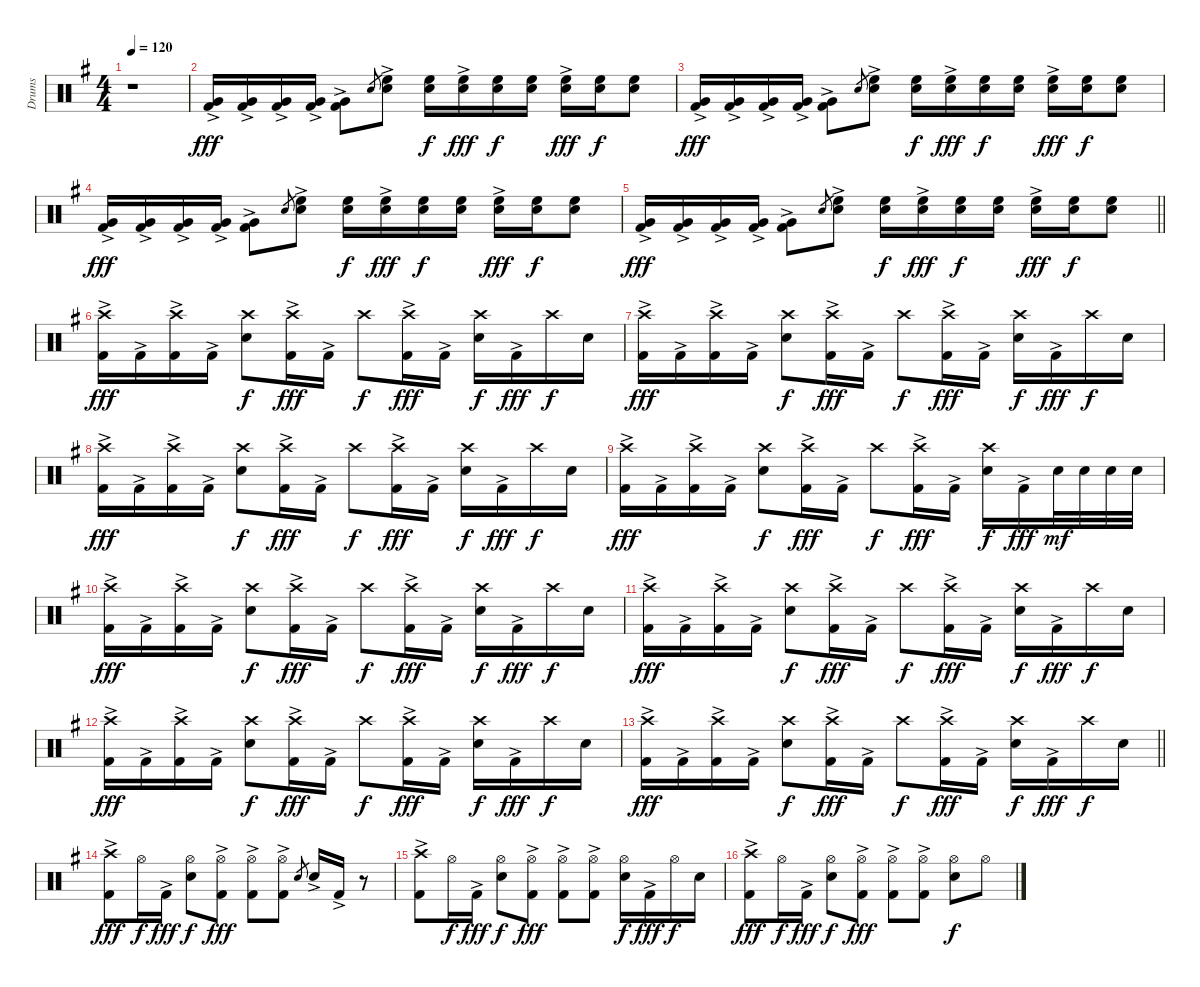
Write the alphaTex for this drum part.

\track ("Drums" "Drums") {instrument percussion}
\staff {score}
\articulation defaults
\ts (4 4)
\tempo 120
\clef neutral
\ks eminor
r.1{dy fff} |
("Very Low Tom (hit)"{ac} "Kick (hit) 2").16 ("Very Low Tom (hit)"{ac} "Kick (hit) 2").16 ("Very Low Tom (hit)"{ac} "Kick (hit) 2").16 ("Very Low Tom (hit)"{ac} "Kick (hit) 2").16 ("Very Low Tom (hit)"{ac} "Kick (hit) 2").8 "Snare (hit) 2".8{gr} ("High Floor Tom (hit)" "Snare (hit) 2"{ac}).8 ("High Floor Tom (hit)" "Snare (hit) 2").16{dy f} ("High Floor Tom (hit)" "Snare (hit) 2"{ac}).16{dy fff} ("High Floor Tom (hit)" "Snare (hit) 2").16{dy f} ("High Floor Tom (hit)" "Snare (hit) 2").16 ("High Floor Tom (hit)" "Snare (hit) 2"{ac}).16{dy fff} ("High Floor Tom (hit)" "Snare (hit) 2").16{dy f} ("High Floor Tom (hit)" "Snare (hit) 2").8 |
("Very Low Tom (hit)"{ac} "Kick (hit) 2").16{dy fff} ("Very Low Tom (hit)"{ac} "Kick (hit) 2").16 ("Very Low Tom (hit)"{ac} "Kick (hit) 2").16 ("Very Low Tom (hit)"{ac} "Kick (hit) 2").16 ("Very Low Tom (hit)"{ac} "Kick (hit) 2").8 "Snare (hit) 2".8{gr} ("High Floor Tom (hit)" "Snare (hit) 2"{ac}).8 ("High Floor Tom (hit)" "Snare (hit) 2").16{dy f} ("High Floor Tom (hit)" "Snare (hit) 2"{ac}).16{dy fff} ("High Floor Tom (hit)" "Snare (hit) 2").16{dy f} ("High Floor Tom (hit)" "Snare (hit) 2").16 ("High Floor Tom (hit)" "Snare (hit) 2"{ac}).16{dy fff} ("High Floor Tom (hit)" "Snare (hit) 2").16{dy f} ("High Floor Tom (hit)" "Snare (hit) 2").8 |
("Very Low Tom (hit)"{ac} "Kick (hit) 2").16{dy fff} ("Very Low Tom (hit)"{ac} "Kick (hit) 2").16 ("Very Low Tom (hit)"{ac} "Kick (hit) 2").16 ("Very Low Tom (hit)"{ac} "Kick (hit) 2").16 ("Very Low Tom (hit)"{ac} "Kick (hit) 2").8 "Snare (hit) 2".8{gr} ("High Floor Tom (hit)" "Snare (hit) 2"{ac}).8 ("High Floor Tom (hit)" "Snare (hit) 2").16{dy f} ("High Floor Tom (hit)" "Snare (hit) 2"{ac}).16{dy fff} ("High Floor Tom (hit)" "Snare (hit) 2").16{dy f} ("High Floor Tom (hit)" "Snare (hit) 2").16 ("High Floor Tom (hit)" "Snare (hit) 2"{ac}).16{dy fff} ("High Floor Tom (hit)" "Snare (hit) 2").16{dy f} ("High Floor Tom (hit)" "Snare (hit) 2").8 |
\barLineRight lightlight
("Very Low Tom (hit)"{ac} "Kick (hit) 2").16{dy fff} ("Very Low Tom (hit)"{ac} "Kick (hit) 2").16 ("Very Low Tom (hit)"{ac} "Kick (hit) 2").16 ("Very Low Tom (hit)"{ac} "Kick (hit) 2").16 ("Very Low Tom (hit)"{ac} "Kick (hit) 2").8 "Snare (hit) 2".8{gr} ("High Floor Tom (hit)" "Snare (hit) 2"{ac}).8 ("High Floor Tom (hit)" "Snare (hit) 2").16{dy f} ("High Floor Tom (hit)" "Snare (hit) 2"{ac}).16{dy fff} ("High Floor Tom (hit)" "Snare (hit) 2").16{dy f} ("High Floor Tom (hit)" "Snare (hit) 2").16 ("High Floor Tom (hit)" "Snare (hit) 2"{ac}).16{dy fff} ("High Floor Tom (hit)" "Snare (hit) 2").16{dy f} ("High Floor Tom (hit)" "Snare (hit) 2").8 |
("Crash high (hit)" "Kick (hit) 2"{ac}).16{dy fff} "Kick (hit) 2"{ac}.16 ("Crash high (hit)" "Kick (hit) 2"{ac}).16 "Kick (hit) 2"{ac}.16 ("Crash high (hit)" "Snare (hit) 2").8{dy f} ("Crash high (hit)" "Kick (hit) 2"{ac}).16{dy fff} "Kick (hit) 2"{ac}.16 "Crash high (hit)".8{dy f} ("Crash high (hit)" "Kick (hit) 2"{ac}).16{dy fff} "Kick (hit) 2"{ac}.16 ("Crash high (hit)" "Snare (hit) 2").16{dy f} "Kick (hit) 2"{ac}.16{dy fff} "Crash high (hit)".16{dy f} "Snare (hit) 2".16 |
("Crash high (hit)" "Kick (hit) 2"{ac}).16{dy fff} "Kick (hit) 2"{ac}.16 ("Crash high (hit)" "Kick (hit) 2"{ac}).16 "Kick (hit) 2"{ac}.16 ("Crash high (hit)" "Snare (hit) 2").8{dy f} ("Crash high (hit)" "Kick (hit) 2"{ac}).16{dy fff} "Kick (hit) 2"{ac}.16 "Crash high (hit)".8{dy f} ("Crash high (hit)" "Kick (hit) 2"{ac}).16{dy fff} "Kick (hit) 2"{ac}.16 ("Crash high (hit)" "Snare (hit) 2").16{dy f} "Kick (hit) 2"{ac}.16{dy fff} "Crash high (hit)".16{dy f} "Snare (hit) 2".16 |
("Crash high (hit)" "Kick (hit) 2"{ac}).16{dy fff} "Kick (hit) 2"{ac}.16 ("Crash high (hit)" "Kick (hit) 2"{ac}).16 "Kick (hit) 2"{ac}.16 ("Crash high (hit)" "Snare (hit) 2").8{dy f} ("Crash high (hit)" "Kick (hit) 2"{ac}).16{dy fff} "Kick (hit) 2"{ac}.16 "Crash high (hit)".8{dy f} ("Crash high (hit)" "Kick (hit) 2"{ac}).16{dy fff} "Kick (hit) 2"{ac}.16 ("Crash high (hit)" "Snare (hit) 2").16{dy f} "Kick (hit) 2"{ac}.16{dy fff} "Crash high (hit)".16{dy f} "Snare (hit) 2".16 |
("Crash high (hit)" "Kick (hit) 2"{ac}).16{dy fff} "Kick (hit) 2"{ac}.16 ("Crash high (hit)" "Kick (hit) 2"{ac}).16 "Kick (hit) 2"{ac}.16 ("Crash high (hit)" "Snare (hit) 2").8{dy f} ("Crash high (hit)" "Kick (hit) 2"{ac}).16{dy fff} "Kick (hit) 2"{ac}.16 "Crash high (hit)".8{dy f} ("Crash high (hit)" "Kick (hit) 2"{ac}).16{dy fff} "Kick (hit) 2"{ac}.16 ("Crash high (hit)" "Snare (hit) 2").16{dy f} "Kick (hit) 2"{ac}.16{dy fff} "Snare (hit) 2".32{dy mf} "Snare (hit) 2".32 "Snare (hit) 2".32 "Snare (hit) 2".32 |
("Crash high (hit)" "Kick (hit) 2"{ac}).16{dy fff} "Kick (hit) 2"{ac}.16 ("Crash high (hit)" "Kick (hit) 2"{ac}).16 "Kick (hit) 2"{ac}.16 ("Crash high (hit)" "Snare (hit) 2").8{dy f} ("Crash high (hit)" "Kick (hit) 2"{ac}).16{dy fff} "Kick (hit) 2"{ac}.16 "Crash high (hit)".8{dy f} ("Crash high (hit)" "Kick (hit) 2"{ac}).16{dy fff} "Kick (hit) 2"{ac}.16 ("Crash high (hit)" "Snare (hit) 2").16{dy f} "Kick (hit) 2"{ac}.16{dy fff} "Crash high (hit)".16{dy f} "Snare (hit) 2".16 |
("Crash high (hit)" "Kick (hit) 2"{ac}).16{dy fff} "Kick (hit) 2"{ac}.16 ("Crash high (hit)" "Kick (hit) 2"{ac}).16 "Kick (hit) 2"{ac}.16 ("Crash high (hit)" "Snare (hit) 2").8{dy f} ("Crash high (hit)" "Kick (hit) 2"{ac}).16{dy fff} "Kick (hit) 2"{ac}.16 "Crash high (hit)".8{dy f} ("Crash high (hit)" "Kick (hit) 2"{ac}).16{dy fff} "Kick (hit) 2"{ac}.16 ("Crash high (hit)" "Snare (hit) 2").16{dy f} "Kick (hit) 2"{ac}.16{dy fff} "Crash high (hit)".16{dy f} "Snare (hit) 2".16 |
("Crash high (hit)" "Kick (hit) 2"{ac}).16{dy fff} "Kick (hit) 2"{ac}.16 ("Crash high (hit)" "Kick (hit) 2"{ac}).16 "Kick (hit) 2"{ac}.16 ("Crash high (hit)" "Snare (hit) 2").8{dy f} ("Crash high (hit)" "Kick (hit) 2"{ac}).16{dy fff} "Kick (hit) 2"{ac}.16 "Crash high (hit)".8{dy f} ("Crash high (hit)" "Kick (hit) 2"{ac}).16{dy fff} "Kick (hit) 2"{ac}.16 ("Crash high (hit)" "Snare (hit) 2").16{dy f} "Kick (hit) 2"{ac}.16{dy fff} "Crash high (hit)".16{dy f} "Snare (hit) 2".16 |
\barLineRight lightlight
("Crash high (hit)" "Kick (hit) 2"{ac}).16{dy fff} "Kick (hit) 2"{ac}.16 ("Crash high (hit)" "Kick (hit) 2"{ac}).16 "Kick (hit) 2"{ac}.16 ("Crash high (hit)" "Snare (hit) 2").8{dy f} ("Crash high (hit)" "Kick (hit) 2"{ac}).16{dy fff} "Kick (hit) 2"{ac}.16 "Crash high (hit)".8{dy f} ("Crash high (hit)" "Kick (hit) 2"{ac}).16{dy fff} "Kick (hit) 2"{ac}.16 ("Crash high (hit)" "Snare (hit) 2").16{dy f} "Kick (hit) 2"{ac}.16{dy fff} "Crash high (hit)".16{dy f} "Snare (hit) 2".16 |
("Crash high (hit)" "Kick (hit) 2"{ac}).8{dy fff} "Hi-Hat (open)".16{dy f} "Kick (hit) 2"{ac}.16{dy fff} ("Hi-Hat (open)" "Snare (hit) 2").8{dy f} ("Hi-Hat (open)" "Kick (hit) 2"{ac}).8{dy fff} ("Hi-Hat (open)" "Kick (hit) 2"{ac}).8 ("Hi-Hat (open)" "Kick (hit) 2"{ac}).8 "Snare (hit) 2".8{gr} "Snare (hit) 2"{ac}.16 "Kick (hit) 2"{ac}.16 r.8 |
("Crash high (hit)" "Kick (hit) 2"{ac}).8 "Hi-Hat (open)".16{dy f} "Kick (hit) 2"{ac}.16{dy fff} ("Hi-Hat (open)" "Snare (hit) 2").8{dy f} ("Hi-Hat (open)" "Kick (hit) 2"{ac}).8{dy fff} ("Hi-Hat (open)" "Kick (hit) 2"{ac}).8 ("Hi-Hat (open)" "Kick (hit) 2"{ac}).8 ("Hi-Hat (open)" "Snare (hit) 2").16{dy f} "Kick (hit) 2"{ac}.16{dy fff} "Hi-Hat (open)".16{dy f} "Snare (hit) 2".16 |
("Crash high (hit)" "Kick (hit) 2"{ac}).8{dy fff} "Hi-Hat (open)".16{dy f} "Kick (hit) 2"{ac}.16{dy fff} ("Hi-Hat (open)" "Snare (hit) 2").8{dy f} ("Hi-Hat (open)" "Kick (hit) 2"{ac}).8{dy fff} ("Hi-Hat (open)" "Kick (hit) 2"{ac}).8 ("Hi-Hat (open)" "Kick (hit) 2"{ac}).8 ("Hi-Hat (open)" "Snare (hit) 2").8{dy f} "Hi-Hat (open)".8
